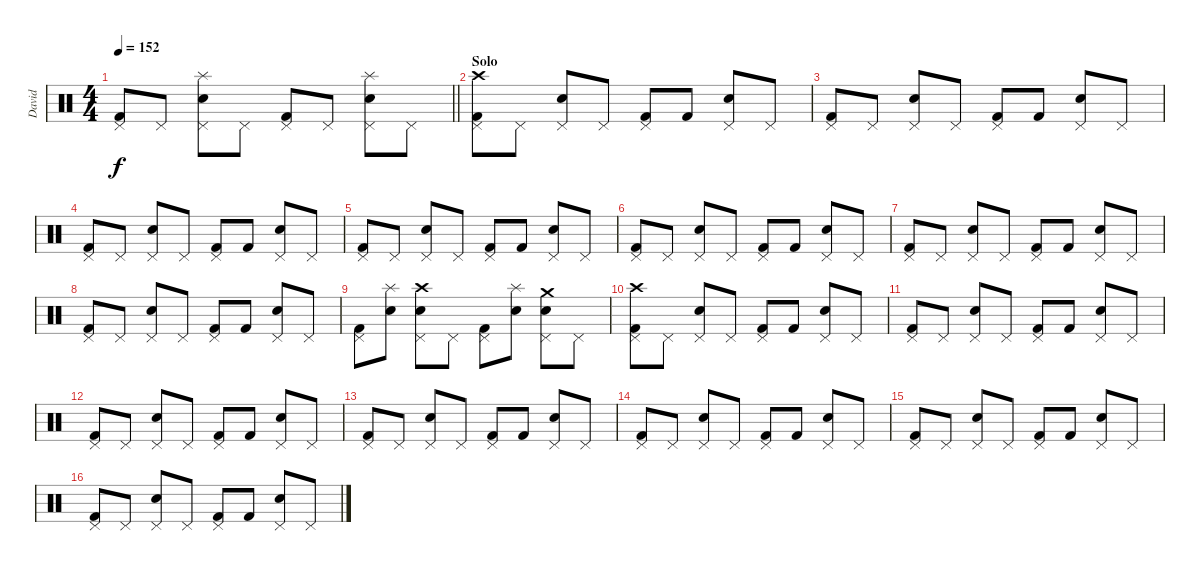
\track ("David" "David") {instrument percussion}
\staff {score}
\articulation defaults
\ts (4 4)
\tempo 152
\clef neutral
\barLineRight lightlight
\ks c
("Kick (hit) 2" "Pedal Hi-Hat (hit)").8{dy f} "Pedal Hi-Hat (hit)".8 ("Snare (hit) 2" "Pedal Hi-Hat (hit)" "Splash (hit)").8 "Pedal Hi-Hat (hit)".8 ("Kick (hit) 2" "Pedal Hi-Hat (hit)").8 "Pedal Hi-Hat (hit)".8 ("Snare (hit) 2" "Pedal Hi-Hat (hit)" "Splash (hit)").8 "Pedal Hi-Hat (hit)".8 |
\section ("" "Solo")
("Kick (hit) 2" "Pedal Hi-Hat (hit)" "Crash high (hit)").8 "Pedal Hi-Hat (hit)".8 ("Snare (hit) 2" "Pedal Hi-Hat (hit)").8 "Pedal Hi-Hat (hit)".8 ("Kick (hit) 2" "Pedal Hi-Hat (hit)").8 "Kick (hit) 2".8 ("Snare (hit) 2" "Pedal Hi-Hat (hit)").8 "Pedal Hi-Hat (hit)".8 |
("Kick (hit) 2" "Pedal Hi-Hat (hit)").8 "Pedal Hi-Hat (hit)".8 ("Snare (hit) 2" "Pedal Hi-Hat (hit)").8 "Pedal Hi-Hat (hit)".8 ("Kick (hit) 2" "Pedal Hi-Hat (hit)").8 "Kick (hit) 2".8 ("Snare (hit) 2" "Pedal Hi-Hat (hit)").8 "Pedal Hi-Hat (hit)".8 |
("Kick (hit) 2" "Pedal Hi-Hat (hit)").8 "Pedal Hi-Hat (hit)".8 ("Snare (hit) 2" "Pedal Hi-Hat (hit)").8 "Pedal Hi-Hat (hit)".8 ("Kick (hit) 2" "Pedal Hi-Hat (hit)").8 "Kick (hit) 2".8 ("Snare (hit) 2" "Pedal Hi-Hat (hit)").8 "Pedal Hi-Hat (hit)".8 |
("Kick (hit) 2" "Pedal Hi-Hat (hit)").8 "Pedal Hi-Hat (hit)".8 ("Snare (hit) 2" "Pedal Hi-Hat (hit)").8 "Pedal Hi-Hat (hit)".8 ("Kick (hit) 2" "Pedal Hi-Hat (hit)").8 "Kick (hit) 2".8 ("Snare (hit) 2" "Pedal Hi-Hat (hit)").8 "Pedal Hi-Hat (hit)".8 |
("Kick (hit) 2" "Pedal Hi-Hat (hit)").8 "Pedal Hi-Hat (hit)".8 ("Snare (hit) 2" "Pedal Hi-Hat (hit)").8 "Pedal Hi-Hat (hit)".8 ("Kick (hit) 2" "Pedal Hi-Hat (hit)").8 "Kick (hit) 2".8 ("Snare (hit) 2" "Pedal Hi-Hat (hit)").8 "Pedal Hi-Hat (hit)".8 |
("Kick (hit) 2" "Pedal Hi-Hat (hit)").8 "Pedal Hi-Hat (hit)".8 ("Snare (hit) 2" "Pedal Hi-Hat (hit)").8 "Pedal Hi-Hat (hit)".8 ("Kick (hit) 2" "Pedal Hi-Hat (hit)").8 "Kick (hit) 2".8 ("Snare (hit) 2" "Pedal Hi-Hat (hit)").8 "Pedal Hi-Hat (hit)".8 |
("Kick (hit) 2" "Pedal Hi-Hat (hit)").8 "Pedal Hi-Hat (hit)".8 ("Snare (hit) 2" "Pedal Hi-Hat (hit)").8 "Pedal Hi-Hat (hit)".8 ("Kick (hit) 2" "Pedal Hi-Hat (hit)").8 "Kick (hit) 2".8 ("Snare (hit) 2" "Pedal Hi-Hat (hit)").8 "Pedal Hi-Hat (hit)".8 |
("Kick (hit) 2" "Pedal Hi-Hat (hit)").8 ("Snare (hit) 2" "Splash (hit)").8 ("Snare (hit) 2" "Pedal Hi-Hat (hit)" "Crash high (hit)").8 "Pedal Hi-Hat (hit)".8 ("Kick (hit) 2" "Pedal Hi-Hat (hit)").8 ("Snare (hit) 2" "Splash (hit)").8 ("Snare (hit) 2" "Pedal Hi-Hat (hit)" "Crash medium (hit)").8 "Pedal Hi-Hat (hit)".8 |
("Kick (hit) 2" "Pedal Hi-Hat (hit)" "Crash high (hit)").8 "Pedal Hi-Hat (hit)".8 ("Snare (hit) 2" "Pedal Hi-Hat (hit)").8 "Pedal Hi-Hat (hit)".8 ("Kick (hit) 2" "Pedal Hi-Hat (hit)").8 "Kick (hit) 2".8 ("Snare (hit) 2" "Pedal Hi-Hat (hit)").8 "Pedal Hi-Hat (hit)".8 |
("Kick (hit) 2" "Pedal Hi-Hat (hit)").8 "Pedal Hi-Hat (hit)".8 ("Snare (hit) 2" "Pedal Hi-Hat (hit)").8 "Pedal Hi-Hat (hit)".8 ("Kick (hit) 2" "Pedal Hi-Hat (hit)").8 "Kick (hit) 2".8 ("Snare (hit) 2" "Pedal Hi-Hat (hit)").8 "Pedal Hi-Hat (hit)".8 |
("Kick (hit) 2" "Pedal Hi-Hat (hit)").8 "Pedal Hi-Hat (hit)".8 ("Snare (hit) 2" "Pedal Hi-Hat (hit)").8 "Pedal Hi-Hat (hit)".8 ("Kick (hit) 2" "Pedal Hi-Hat (hit)").8 "Kick (hit) 2".8 ("Snare (hit) 2" "Pedal Hi-Hat (hit)").8 "Pedal Hi-Hat (hit)".8 |
("Kick (hit) 2" "Pedal Hi-Hat (hit)").8 "Pedal Hi-Hat (hit)".8 ("Snare (hit) 2" "Pedal Hi-Hat (hit)").8 "Pedal Hi-Hat (hit)".8 ("Kick (hit) 2" "Pedal Hi-Hat (hit)").8 "Kick (hit) 2".8 ("Snare (hit) 2" "Pedal Hi-Hat (hit)").8 "Pedal Hi-Hat (hit)".8 |
("Kick (hit) 2" "Pedal Hi-Hat (hit)").8 "Pedal Hi-Hat (hit)".8 ("Snare (hit) 2" "Pedal Hi-Hat (hit)").8 "Pedal Hi-Hat (hit)".8 ("Kick (hit) 2" "Pedal Hi-Hat (hit)").8 "Kick (hit) 2".8 ("Snare (hit) 2" "Pedal Hi-Hat (hit)").8 "Pedal Hi-Hat (hit)".8 |
("Kick (hit) 2" "Pedal Hi-Hat (hit)").8 "Pedal Hi-Hat (hit)".8 ("Snare (hit) 2" "Pedal Hi-Hat (hit)").8 "Pedal Hi-Hat (hit)".8 ("Kick (hit) 2" "Pedal Hi-Hat (hit)").8 "Kick (hit) 2".8 ("Snare (hit) 2" "Pedal Hi-Hat (hit)").8 "Pedal Hi-Hat (hit)".8 |
("Kick (hit) 2" "Pedal Hi-Hat (hit)").8 "Pedal Hi-Hat (hit)".8 ("Snare (hit) 2" "Pedal Hi-Hat (hit)").8 "Pedal Hi-Hat (hit)".8 ("Kick (hit) 2" "Pedal Hi-Hat (hit)").8 "Kick (hit) 2".8 ("Snare (hit) 2" "Pedal Hi-Hat (hit)").8 "Pedal Hi-Hat (hit)".8
